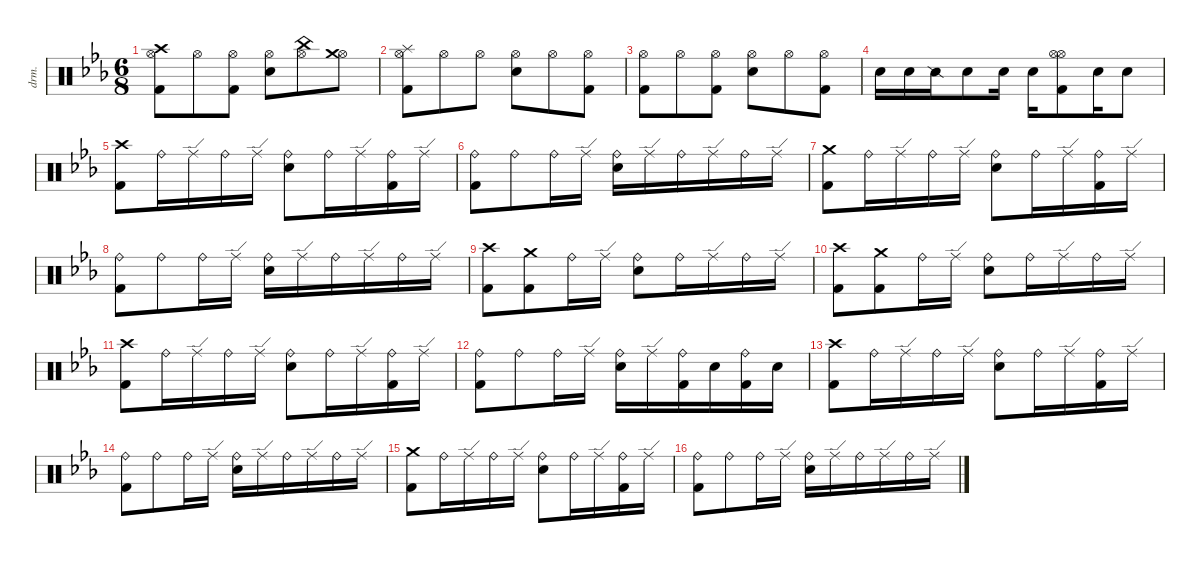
\defaultSystemsLayout 4
\hideDynamics
\bracketExtendMode nobrackets
\otherSystemsTrackNameOrientation horizontal
\track ("Drums" "drm.") {defaultSystemsLayout 4 instrument percussion}
\staff {score}
\articulation defaults
\ts (6 8)
\tempo (93 hide)
\clef neutral
\ks cminor
("Hi-Hat (open)"{acc forcenatural} "Crash high (hit)"{acc forcenatural} "Kick (hit) 2"{acc forcenatural}).8{dy ff beam Down} "Hi-Hat (open)"{acc forcenatural}.8{beam Down} ("Hi-Hat (open)"{acc forcenatural} "Kick (hit) 2"{acc forcenatural}).8{beam Down} ("Hi-Hat (open)"{acc forcenatural} "Snare (hit) 2"{acc forcenatural}).8{beam Down} ("Hi-Hat (open)"{acc forcenatural} "China (hit)"{acc forcenatural}).8{beam Down} ("Hi-Hat (open)"{acc forcenatural} "Crash medium (hit)"{acc forcenatural}).8{beam Down} |
("Hi-Hat (open)"{acc forcenatural} "Splash (hit)"{acc forcenatural} "Kick (hit) 2"{acc forcenatural}).8{beam Down} "Hi-Hat (open)"{acc forcenatural}.8{beam Down} "Hi-Hat (open)"{acc forcenatural}.8{beam Down} ("Hi-Hat (open)"{acc forcenatural} "Snare (hit) 2"{acc forcenatural}).8{beam Down} "Hi-Hat (open)"{acc forcenatural}.8{beam Down} ("Hi-Hat (open)"{acc forcenatural} "Kick (hit) 2"{acc forcenatural}).8{beam Down} |
\tempo (93 hide)
("Hi-Hat (open)"{acc forcenatural} "Kick (hit) 2"{acc forcenatural}).8{beam Down} "Hi-Hat (open)"{acc forcenatural}.8{beam Down} ("Hi-Hat (open)"{acc forcenatural} "Kick (hit) 2"{acc forcenatural}).8{beam Down} ("Hi-Hat (open)"{acc forcenatural} "Snare (hit) 2"{acc forcenatural}).8{beam Down} "Hi-Hat (open)"{acc forcenatural}.8{beam Down} ("Hi-Hat (open)"{acc forcenatural} "Kick (hit) 2"{acc forcenatural}).8{beam Down} |
\tempo (91.5 hide)
"Snare (hit) 2"{acc forcenatural}.16{beam Down} "Snare (hit) 2"{acc forcenatural}.16{beam Down} "Snare (side stick) 2"{acc forcenatural}.16{dy mf beam Down} "Snare (hit) 2"{acc forcenatural}.8{dy fff beam Down} "Snare (hit) 2"{acc forcenatural}.16{beam Down} "Snare (hit) 2"{acc forcenatural}.16{dy ff beam Down} ("Hi-Hat (open)"{acc forcenatural} "Hi-Hat (open)"{acc forcenatural} "Kick (hit) 2"{acc forcenatural}).8{dy fff beam Down} "Snare (hit) 2"{acc forcenatural}.16{beam Down} "Snare (hit) 2"{acc forcenatural}.8{beam Down} |
\tempo (93 hide)
("Crash high (hit)"{acc forcenatural} "Kick (hit) 2"{acc forcenatural}).8{beam Down} "Ride (bell)"{acc forcenatural}.16{dy f beam Down} "Ride (edge)"{acc forcenatural}.16{beam Down} "Ride (bell)"{acc forcenatural}.16{beam Down} "Ride (edge)"{acc forcenatural}.16{beam Down} ("Ride (bell)"{acc forcenatural} "Snare (hit) 2"{acc forcenatural}).8{beam Down} "Ride (bell)"{acc forcenatural}.16{beam Down} "Ride (edge)"{acc forcenatural}.16{beam Down} ("Ride (bell)"{acc forcenatural} "Kick (hit) 2"{acc forcenatural}).16{beam Down} "Ride (edge)"{acc forcenatural}.16{beam Down} |
\tempo (93 0.994444 hide)
("Ride (bell)"{acc forcenatural} "Kick (hit) 2"{acc forcenatural}).8{beam Down} "Ride (bell)"{acc forcenatural}.8{beam Down} "Ride (bell)"{acc forcenatural}.16{beam Down} "Ride (edge)"{acc forcenatural}.16{beam Down} ("Ride (bell)"{acc forcenatural} "Snare (hit) 2"{acc forcenatural}).16{beam Down} "Ride (edge)"{acc forcenatural}.16{beam Down} "Ride (bell)"{acc forcenatural}.16{beam Down} "Ride (edge)"{acc forcenatural}.16{beam Down} "Ride (bell)"{acc forcenatural}.16{beam Down} "Ride (edge)"{acc forcenatural}.16{beam Down} |
("Crash medium (hit)"{acc forcenatural} "Kick (hit) 2"{acc forcenatural}).8{dy fff beam Down} "Ride (bell)"{acc forcenatural}.16{dy f beam Down} "Ride (edge)"{acc forcenatural}.16{beam Down} "Ride (bell)"{acc forcenatural}.16{beam Down} "Ride (edge)"{acc forcenatural}.16{beam Down} ("Ride (bell)"{acc forcenatural} "Snare (hit) 2"{acc forcenatural}).8{beam Down} "Ride (bell)"{acc forcenatural}.16{beam Down} "Ride (edge)"{acc forcenatural}.16{beam Down} ("Ride (bell)"{acc forcenatural} "Kick (hit) 2"{acc forcenatural}).16{beam Down} "Ride (edge)"{acc forcenatural}.16{beam Down} |
\tempo (91.5 hide)
("Ride (bell)"{acc forcenatural} "Kick (hit) 2"{acc forcenatural}).8{beam Down} "Ride (bell)"{acc forcenatural}.8{beam Down} "Ride (bell)"{acc forcenatural}.16{beam Down} "Ride (edge)"{acc forcenatural}.16{beam Down} ("Ride (bell)"{acc forcenatural} "Snare (hit) 2"{acc forcenatural}).16{beam Down} "Ride (edge)"{acc forcenatural}.16{beam Down} "Ride (bell)"{acc forcenatural}.16{beam Down} "Ride (edge)"{acc forcenatural}.16{beam Down} "Ride (bell)"{acc forcenatural}.16{beam Down} "Ride (edge)"{acc forcenatural}.16{beam Down} |
\tempo (93 0.00555556 hide)
("Crash high (hit)"{acc forcenatural} "Kick (hit) 2"{acc forcenatural}).8{dy fff beam Down} ("Crash medium (hit)"{acc forcenatural} "Kick (hit) 2"{acc forcenatural}).8{beam Down} "Ride (bell)"{acc forcenatural}.16{dy f beam Down} "Ride (edge)"{acc forcenatural}.16{beam Down} ("Ride (bell)"{acc forcenatural} "Snare (hit) 2"{acc forcenatural}).8{beam Down} "Ride (bell)"{acc forcenatural}.16{beam Down} "Ride (edge)"{acc forcenatural}.16{beam Down} "Ride (bell)"{acc forcenatural}.16{beam Down} "Ride (edge)"{acc forcenatural}.16{beam Down} |
("Crash high (hit)"{acc forcenatural} "Kick (hit) 2"{acc forcenatural}).8{dy fff beam Down} ("Crash medium (hit)"{acc forcenatural} "Kick (hit) 2"{acc forcenatural}).8{beam Down} "Ride (bell)"{acc forcenatural}.16{dy f beam Down} "Ride (edge)"{acc forcenatural}.16{beam Down} ("Ride (bell)"{acc forcenatural} "Snare (hit) 2"{acc forcenatural}).8{beam Down} "Ride (bell)"{acc forcenatural}.16{beam Down} "Ride (edge)"{acc forcenatural}.16{beam Down} "Ride (bell)"{acc forcenatural}.16{beam Down} "Ride (edge)"{acc forcenatural}.16{beam Down} |
\tempo (93 0.00555556 hide)
("Crash high (hit)"{acc forcenatural} "Kick (hit) 2"{acc forcenatural}).8{dy fff beam Down} "Ride (bell)"{acc forcenatural}.16{dy f beam Down} "Ride (edge)"{acc forcenatural}.16{beam Down} "Ride (bell)"{acc forcenatural}.16{beam Down} "Ride (edge)"{acc forcenatural}.16{beam Down} ("Ride (bell)"{acc forcenatural} "Snare (hit) 2"{acc forcenatural}).8{beam Down} "Ride (bell)"{acc forcenatural}.16{beam Down} "Ride (edge)"{acc forcenatural}.16{beam Down} ("Ride (bell)"{acc forcenatural} "Kick (hit) 2"{acc forcenatural}).16{beam Down} "Ride (edge)"{acc forcenatural}.16{beam Down} |
\tempo (91.5 hide)
\tempo (93 0.994444 hide)
("Ride (bell)"{acc forcenatural} "Kick (hit) 2"{acc forcenatural}).8{beam Down} "Ride (bell)"{acc forcenatural}.8{beam Down} "Ride (bell)"{acc forcenatural}.16{beam Down} "Ride (edge)"{acc forcenatural}.16{beam Down} ("Ride (bell)"{acc forcenatural} "Snare (hit) 2"{acc forcenatural}).16{beam Down} "Ride (edge)"{acc forcenatural}.16{beam Down} ("Ride (bell)"{acc forcenatural} "Kick (hit) 2"{acc forcenatural}).16{beam Down} "Snare (hit) 2"{acc forcenatural}.16{dy ff beam Down} ("Ride (bell)"{acc forcenatural} "Kick (hit) 2"{acc forcenatural}).16{dy f beam Down} "Snare (hit) 2"{acc forcenatural}.16{dy ff beam Down} |
("Crash high (hit)"{acc forcenatural} "Kick (hit) 2"{acc forcenatural}).8{dy fff beam Down} "Ride (bell)"{acc forcenatural}.16{dy f beam Down} "Ride (edge)"{acc forcenatural}.16{beam Down} "Ride (bell)"{acc forcenatural}.16{beam Down} "Ride (edge)"{acc forcenatural}.16{beam Down} ("Ride (bell)"{acc forcenatural} "Snare (hit) 2"{acc forcenatural}).8{beam Down} "Ride (bell)"{acc forcenatural}.16{beam Down} "Ride (edge)"{acc forcenatural}.16{beam Down} ("Ride (bell)"{acc forcenatural} "Kick (hit) 2"{acc forcenatural}).16{beam Down} "Ride (edge)"{acc forcenatural}.16{beam Down} |
("Ride (bell)"{acc forcenatural} "Kick (hit) 2"{acc forcenatural}).8{beam Down} "Ride (bell)"{acc forcenatural}.8{beam Down} "Ride (bell)"{acc forcenatural}.16{beam Down} "Ride (edge)"{acc forcenatural}.16{beam Down} ("Ride (bell)"{acc forcenatural} "Snare (hit) 2"{acc forcenatural}).16{beam Down} "Ride (edge)"{acc forcenatural}.16{beam Down} "Ride (bell)"{acc forcenatural}.16{beam Down} "Ride (edge)"{acc forcenatural}.16{beam Down} "Ride (bell)"{acc forcenatural}.16{beam Down} "Ride (edge)"{acc forcenatural}.16{beam Down} |
\tempo (93 0.00555556 hide)
("Crash medium (hit)"{acc forcenatural} "Kick (hit) 2"{acc forcenatural}).8{dy fff beam Down} "Ride (bell)"{acc forcenatural}.16{dy f beam Down} "Ride (edge)"{acc forcenatural}.16{beam Down} "Ride (bell)"{acc forcenatural}.16{beam Down} "Ride (edge)"{acc forcenatural}.16{beam Down} ("Ride (bell)"{acc forcenatural} "Snare (hit) 2"{acc forcenatural}).8{beam Down} "Ride (bell)"{acc forcenatural}.16{beam Down} "Ride (edge)"{acc forcenatural}.16{beam Down} ("Ride (bell)"{acc forcenatural} "Kick (hit) 2"{acc forcenatural}).16{beam Down} "Ride (edge)"{acc forcenatural}.16{beam Down} |
\tempo (91.5 hide)
("Ride (bell)"{acc forcenatural} "Kick (hit) 2"{acc forcenatural}).8{beam Down} "Ride (bell)"{acc forcenatural}.8{beam Down} "Ride (bell)"{acc forcenatural}.16{beam Down} "Ride (edge)"{acc forcenatural}.16{beam Down} ("Ride (bell)"{acc forcenatural} "Snare (hit) 2"{acc forcenatural}).16{beam Down} "Ride (edge)"{acc forcenatural}.16{beam Down} "Ride (bell)"{acc forcenatural}.16{beam Down} "Ride (edge)"{acc forcenatural}.16{beam Down} "Ride (bell)"{acc forcenatural}.16{beam Down} "Ride (edge)"{acc forcenatural}.16{beam Down}
